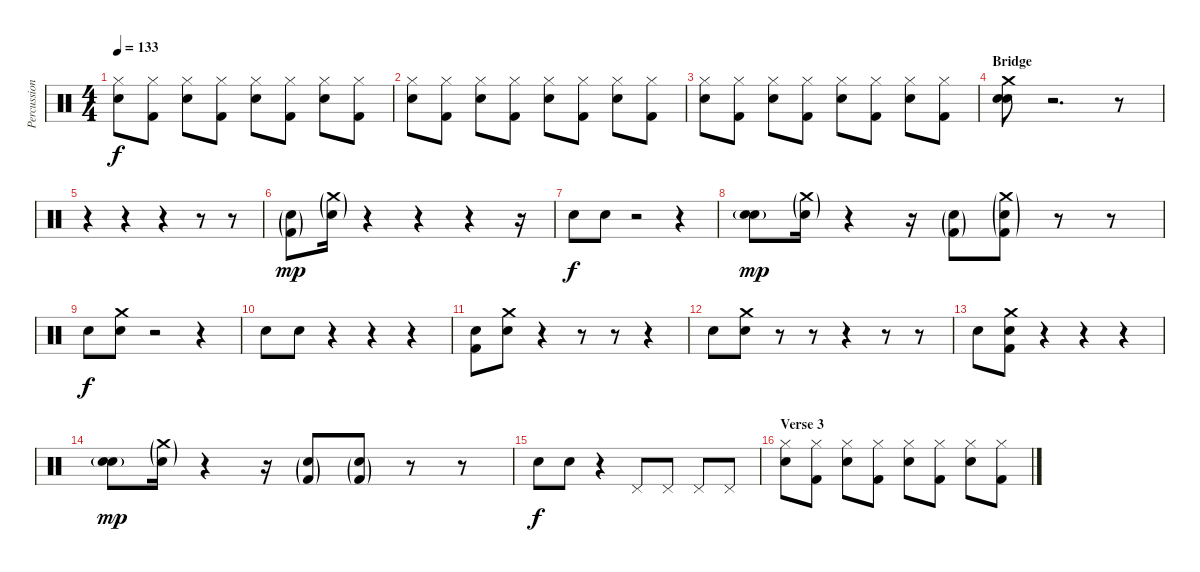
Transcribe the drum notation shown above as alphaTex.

\track ("Percussion" "Percussion") {instrument percussion}
\staff {score}
\articulation defaults
\ts (4 4)
\tempo 133
\clef neutral
\ks c
("Snare (hit) 2" "Hi-Hat (closed)").8{dy f} ("Kick (hit) 2" "Hi-Hat (closed)").8 ("Snare (hit) 2" "Hi-Hat (closed)").8 ("Kick (hit) 2" "Hi-Hat (closed)").8 ("Snare (hit) 2" "Hi-Hat (closed)").8 ("Kick (hit) 2" "Hi-Hat (closed)").8 ("Snare (hit) 2" "Hi-Hat (closed)").8 ("Kick (hit) 2" "Hi-Hat (closed)").8 |
("Snare (hit) 2" "Hi-Hat (closed)").8 ("Kick (hit) 2" "Hi-Hat (closed)").8 ("Snare (hit) 2" "Hi-Hat (closed)").8 ("Kick (hit) 2" "Hi-Hat (closed)").8 ("Snare (hit) 2" "Hi-Hat (closed)").8 ("Kick (hit) 2" "Hi-Hat (closed)").8 ("Snare (hit) 2" "Hi-Hat (closed)").8 ("Kick (hit) 2" "Hi-Hat (closed)").8 |
("Snare (hit) 2" "Hi-Hat (closed)").8 ("Kick (hit) 2" "Hi-Hat (closed)").8 ("Snare (hit) 2" "Hi-Hat (closed)").8 ("Kick (hit) 2" "Hi-Hat (closed)").8 ("Snare (hit) 2" "Hi-Hat (closed)").8 ("Kick (hit) 2" "Hi-Hat (closed)").8 ("Snare (hit) 2" "Hi-Hat (closed)").8 ("Kick (hit) 2" "Hi-Hat (closed)").8 |
\section ("" "Bridge")
("Snare (hit) 2" "Crash medium (hit)" "Snare (hit)").8 r.2{d} r.8 |
r.4 r.4 r.4 r.8 r.8 |
("Snare (hit) 2"{g} "Kick (hit) 2"{g}).8{dy mp} ("Snare (hit) 2"{g} "Crash medium (hit)"{g}).16 r.4 r.4 r.4 r.16 |
"Snare (hit) 2".8{dy f} "Snare (hit) 2".8 r.2 r.4 |
("Snare (hit) 2"{g} "Snare (hit) 2"{g}).8{dy mp} ("Snare (hit) 2"{g} "Crash medium (hit)"{g}).16 r.4 r.16 ("Kick (hit) 2"{g} "Snare (hit) 2"{g}).8 ("Kick (hit) 2"{g} "Snare (hit) 2"{g} "Crash medium (hit)"{g}).8 r.8 r.8 |
"Snare (hit) 2".8{dy f} ("Snare (hit) 2" "Crash medium (hit)").8 r.2 r.4 |
"Snare (hit) 2".8 "Snare (hit) 2".8 r.4 r.4 r.4 |
("Snare (hit) 2" "Kick (hit) 2").8 ("Crash medium (hit)" "Snare (hit) 2").8 r.4 r.8 r.8 r.4 |
"Snare (hit) 2".8 ("Snare (hit) 2" "Crash medium (hit)").8 r.8 r.8 r.4 r.8 r.8 |
"Snare (hit) 2".8 ("Kick (hit) 2" "Snare (hit) 2" "Crash medium (hit)").8 r.4 r.4 r.4 |
("Snare (hit) 2"{g} "Snare (hit) 2"{g}).8{dy mp} ("Snare (hit) 2"{g} "Crash medium (hit)"{g}).16 r.4 r.16 ("Kick (hit) 2"{g} "Snare (hit) 2"{g}).8 ("Kick (hit) 2"{g} "Snare (hit) 2"{g}).8 r.8 r.8 |
"Snare (hit) 2".8{dy f} "Snare (hit) 2".8 r.4 "Pedal Hi-Hat (hit)".8 "Pedal Hi-Hat (hit)".8 "Pedal Hi-Hat (hit)".8 "Pedal Hi-Hat (hit)".8 |
\section ("" "Verse 3")
("Snare (hit) 2" "Hi-Hat (closed)").8 ("Kick (hit) 2" "Hi-Hat (closed)").8 ("Snare (hit) 2" "Hi-Hat (closed)").8 ("Kick (hit) 2" "Hi-Hat (closed)").8 ("Snare (hit) 2" "Hi-Hat (closed)").8 ("Kick (hit) 2" "Hi-Hat (closed)").8 ("Snare (hit) 2" "Hi-Hat (closed)").8 ("Kick (hit) 2" "Hi-Hat (closed)").8
